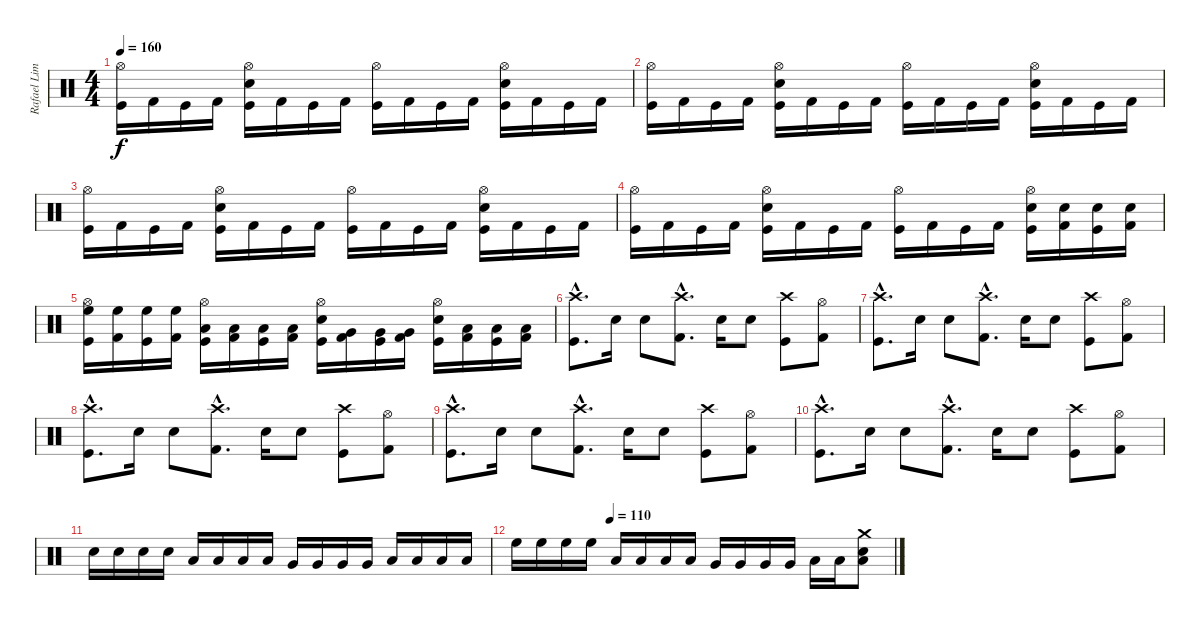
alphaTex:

\track ("Rafael Lima" "Rafael Lim") {instrument percussion}
\staff {score}
\articulation defaults
\ts (4 4)
\tempo 160
\clef neutral
\ks c
("Hi-Hat (open)" "Kick (hit)").16{dy f} "Kick (hit) 2".16 "Kick (hit)".16 "Kick (hit) 2".16 ("Hi-Hat (open)" "Electric Snare (hit)" "Kick (hit)").16 "Kick (hit) 2".16 "Kick (hit)".16 "Kick (hit) 2".16 ("Hi-Hat (open)" "Kick (hit)").16 "Kick (hit) 2".16 "Kick (hit)".16 "Kick (hit) 2".16 ("Hi-Hat (open)" "Electric Snare (hit)" "Kick (hit)").16 "Kick (hit) 2".16 "Kick (hit)".16 "Kick (hit) 2".16 |
("Hi-Hat (open)" "Kick (hit)").16 "Kick (hit) 2".16 "Kick (hit)".16 "Kick (hit) 2".16 ("Hi-Hat (open)" "Electric Snare (hit)" "Kick (hit)").16 "Kick (hit) 2".16 "Kick (hit)".16 "Kick (hit) 2".16 ("Hi-Hat (open)" "Kick (hit)").16 "Kick (hit) 2".16 "Kick (hit)".16 "Kick (hit) 2".16 ("Hi-Hat (open)" "Electric Snare (hit)" "Kick (hit)").16 "Kick (hit) 2".16 "Kick (hit)".16 "Kick (hit) 2".16 |
("Hi-Hat (open)" "Kick (hit)").16 "Kick (hit) 2".16 "Kick (hit)".16 "Kick (hit) 2".16 ("Hi-Hat (open)" "Electric Snare (hit)" "Kick (hit)").16 "Kick (hit) 2".16 "Kick (hit)".16 "Kick (hit) 2".16 ("Hi-Hat (open)" "Kick (hit)").16 "Kick (hit) 2".16 "Kick (hit)".16 "Kick (hit) 2".16 ("Hi-Hat (open)" "Electric Snare (hit)" "Kick (hit)").16 "Kick (hit) 2".16 "Kick (hit)".16 "Kick (hit) 2".16 |
("Hi-Hat (open)" "Kick (hit)").16 "Kick (hit) 2".16 "Kick (hit)".16 "Kick (hit) 2".16 ("Hi-Hat (open)" "Electric Snare (hit)" "Kick (hit)").16 "Kick (hit) 2".16 "Kick (hit)".16 "Kick (hit) 2".16 ("Hi-Hat (open)" "Kick (hit)").16 "Kick (hit) 2".16 "Kick (hit)".16 "Kick (hit) 2".16 ("Hi-Hat (open)" "Electric Snare (hit)" "Kick (hit)").16 ("Electric Snare (hit)" "Kick (hit) 2").16 ("Electric Snare (hit)" "Kick (hit)").16 ("Electric Snare (hit)" "Kick (hit) 2").16 |
("Hi-Hat (open)" "High Floor Tom (hit)" "Kick (hit)").16 ("High Floor Tom (hit)" "Kick (hit) 2").16 ("High Floor Tom (hit)" "Kick (hit)").16 ("High Floor Tom (hit)" "Kick (hit) 2").16 ("Hi-Hat (open)" "Low Tom (hit)" "Kick (hit)").16 ("Low Tom (hit)" "Kick (hit) 2").16 ("Low Tom (hit)" "Kick (hit)").16 ("Low Tom (hit)" "Kick (hit) 2").16 ("Hi-Hat (open)" "Electric Snare (hit)" "Kick (hit)").16 ("Very Low Tom (hit)" "Kick (hit) 2").16 ("Very Low Tom (hit)" "Kick (hit)").16 ("Very Low Tom (hit)" "Kick (hit) 2").16 ("Hi-Hat (open)" "Electric Snare (hit)" "Kick (hit)").16 ("Low Floor Tom (hit)" "Kick (hit) 2").16 ("Low Floor Tom (hit)" "Kick (hit)").16 ("Low Floor Tom (hit)" "Kick (hit) 2").16 |
("Crash high (hit)"{hac} "Kick (hit)"{hac}).8{d} "Electric Snare (hit)".16 "Electric Snare (hit)".8 ("Crash high (hit)"{hac} "Kick (hit) 2"{hac}).8{d} "Electric Snare (hit)".16 "Electric Snare (hit)".8 ("Crash high (hit)" "Kick (hit)").8 ("Hi-Hat (open)" "Kick (hit) 2").8 |
("Crash high (hit)"{hac} "Kick (hit)"{hac}).8{d} "Electric Snare (hit)".16 "Electric Snare (hit)".8 ("Crash high (hit)"{hac} "Kick (hit) 2"{hac}).8{d} "Electric Snare (hit)".16 "Electric Snare (hit)".8 ("Crash high (hit)" "Kick (hit)").8 ("Hi-Hat (open)" "Kick (hit) 2").8 |
("Crash high (hit)"{hac} "Kick (hit)"{hac}).8{d} "Electric Snare (hit)".16 "Electric Snare (hit)".8 ("Crash high (hit)"{hac} "Kick (hit) 2"{hac}).8{d} "Electric Snare (hit)".16 "Electric Snare (hit)".8 ("Crash high (hit)" "Kick (hit)").8 ("Hi-Hat (open)" "Kick (hit) 2").8 |
("Crash high (hit)"{hac} "Kick (hit)"{hac}).8{d} "Electric Snare (hit)".16 "Electric Snare (hit)".8 ("Crash high (hit)"{hac} "Kick (hit) 2"{hac}).8{d} "Electric Snare (hit)".16 "Electric Snare (hit)".8 ("Crash high (hit)" "Kick (hit)").8 ("Hi-Hat (open)" "Kick (hit) 2").8 |
("Crash high (hit)"{hac} "Kick (hit)"{hac}).8{d} "Electric Snare (hit)".16 "Electric Snare (hit)".8 ("Crash high (hit)"{hac} "Kick (hit) 2"{hac}).8{d} "Electric Snare (hit)".16 "Electric Snare (hit)".8 ("Crash high (hit)" "Kick (hit)").8 ("Hi-Hat (open)" "Kick (hit) 2").8 |
"Electric Snare (hit)".16 "Electric Snare (hit)".16 "Electric Snare (hit)".16 "Electric Snare (hit)".16 "Low Tom (hit)".16 "Low Tom (hit)".16 "Low Tom (hit)".16 "Low Tom (hit)".16 "Very Low Tom (hit)".16 "Very Low Tom (hit)".16 "Very Low Tom (hit)".16 "Very Low Tom (hit)".16 "Low Floor Tom (hit)".16 "Low Floor Tom (hit)".16 "Low Floor Tom (hit)".16 "Low Floor Tom (hit)".16 |
\tempo (110 0.25)
"High Floor Tom (hit)".16 "High Floor Tom (hit)".16 "High Floor Tom (hit)".16 "High Floor Tom (hit)".16 "Low Tom (hit)".16 "Low Tom (hit)".16 "Low Tom (hit)".16 "Low Tom (hit)".16 "Very Low Tom (hit)".16 "Very Low Tom (hit)".16 "Very Low Tom (hit)".16 "Very Low Tom (hit)".16 "Low Floor Tom (hit)".16 "Low Floor Tom (hit)".16 ("Crash medium (hit)" "Electric Snare (hit)" "Low Floor Tom (hit)").8
